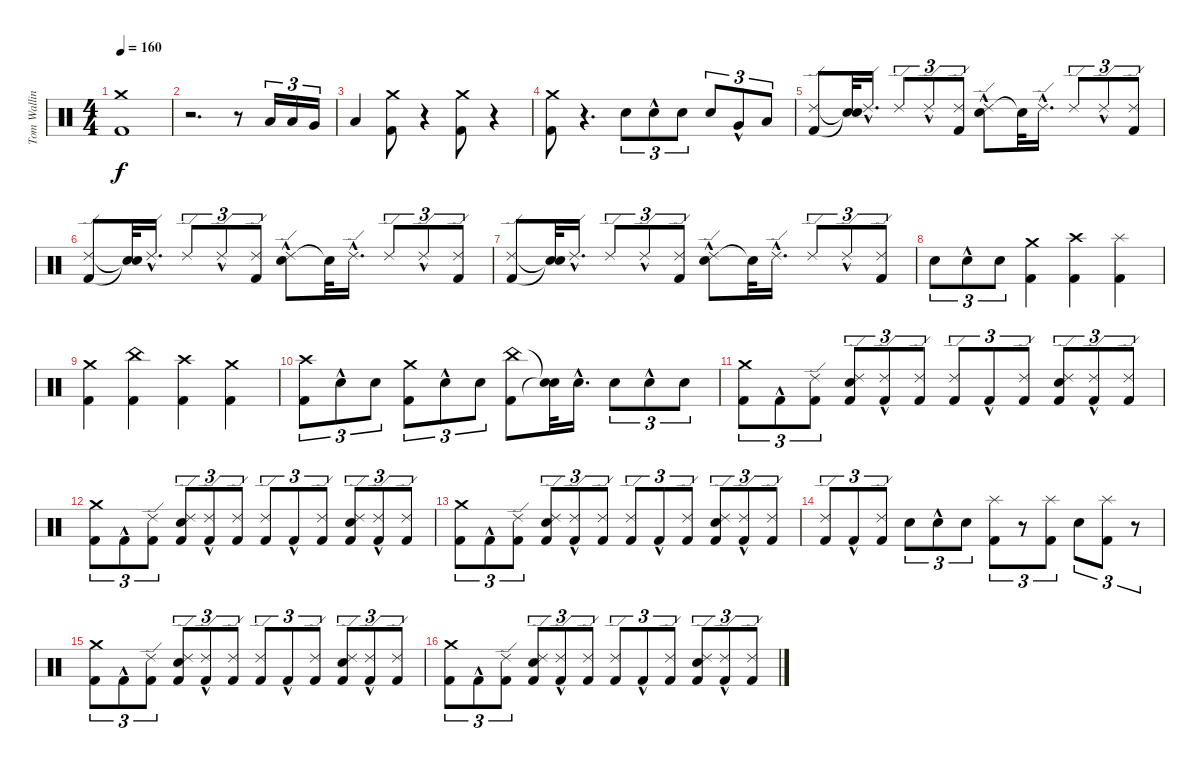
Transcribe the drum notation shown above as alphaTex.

\track ("Tom Walling (Drums)" "Tom Wallin") {instrument percussion}
\staff {score}
\articulation defaults
\ts (4 4)
\tempo 160
\clef neutral
\ks c
("Crash medium (hit)" "Kick (hit) 2").1{dy f} |
r.2{d} r.8 "Low Tom (hit)".16{tu (3 2)} "Low Tom (hit)".16{tu (3 2)} "Very Low Tom (hit)".16{tu (3 2)} |
"Low Floor Tom (hit)".4 ("Crash medium (hit)" "Kick (hit) 2").8 r.4 ("Crash medium (hit)" "Kick (hit) 2").8 r.4 |
("Crash medium (hit)" "Kick (hit) 2").8 r.4{d} "Electric Snare (hit)".8{tu (3 2)} "Electric Snare (hit)"{hac}.8{tu (3 2)} "Electric Snare (hit)".8{tu (3 2)} "Electric Snare (hit)".8{tu (3 2)} "Very Low Tom (hit)"{hac}.8{tu (3 2)} "Low Floor Tom (hit)".8{tu (3 2)} |
("Ride (edge) 2" "Kick (hit) 2").8 ("Snare (hit)"{t} "Snare (hit)"{t}).32 "Ride (edge) 2"{hac}.16{d} "Ride (edge) 2".8{tu (3 2)} "Ride (edge) 2"{hac}.8{tu (3 2)} ("Ride (edge) 2" "Kick (hit) 2").8{tu (3 2)} ("Ride (edge) 2"{hac} "Electric Snare (hit)").8 "Snare (hit)"{t}.32 "Ride (edge) 2"{hac}.16{d} "Ride (edge) 2".8{tu (3 2)} "Ride (edge) 2"{hac}.8{tu (3 2)} ("Ride (edge) 2" "Kick (hit) 2").8{tu (3 2)} |
("Ride (edge) 2" "Kick (hit) 2").8 ("Snare (hit)"{t} "Snare (hit)"{t}).32 "Ride (edge) 2"{hac}.16{d} "Ride (edge) 2".8{tu (3 2)} "Ride (edge) 2"{hac}.8{tu (3 2)} ("Ride (edge) 2" "Kick (hit) 2").8{tu (3 2)} ("Ride (edge) 2"{hac} "Electric Snare (hit)").8 "Snare (hit)"{t}.32 "Ride (edge) 2"{hac}.16{d} "Ride (edge) 2".8{tu (3 2)} "Ride (edge) 2"{hac}.8{tu (3 2)} ("Ride (edge) 2" "Kick (hit) 2").8{tu (3 2)} |
("Ride (edge) 2" "Kick (hit) 2").8 ("Snare (hit)"{t} "Snare (hit)"{t}).32 "Ride (edge) 2"{hac}.16{d} "Ride (edge) 2".8{tu (3 2)} "Ride (edge) 2"{hac}.8{tu (3 2)} ("Ride (edge) 2" "Kick (hit) 2").8{tu (3 2)} ("Ride (edge) 2"{hac} "Electric Snare (hit)").8 "Snare (hit)"{t}.32 "Ride (edge) 2"{hac}.16{d} "Ride (edge) 2".8{tu (3 2)} "Ride (edge) 2"{hac}.8{tu (3 2)} ("Ride (edge) 2" "Kick (hit) 2").8{tu (3 2)} |
"Electric Snare (hit)".8{tu (3 2)} "Electric Snare (hit)"{hac}.8{tu (3 2)} "Electric Snare (hit)".8{tu (3 2)} ("Crash medium (hit)" "Kick (hit) 2").4 ("Crash high (hit)" "Kick (hit) 2").4 ("Splash (hit)" "Kick (hit) 2").4 |
("Crash medium (hit)" "Kick (hit) 2").4 ("China (hit)" "Kick (hit) 2").4 ("Crash high (hit)" "Kick (hit) 2").4 ("Crash medium (hit)" "Kick (hit) 2").4 |
("Crash high (hit)" "Kick (hit) 2").8{tu (3 2)} "Electric Snare (hit)"{hac}.8{tu (3 2)} "Electric Snare (hit)".8{tu (3 2)} ("Crash medium (hit)" "Kick (hit) 2").8{tu (3 2)} "Electric Snare (hit)"{hac}.8{tu (3 2)} "Electric Snare (hit)".8{tu (3 2)} ("China (hit)" "Kick (hit) 2").8 ("Snare (hit)"{t} "Snare (hit)"{t}).32 "Electric Snare (hit)"{hac}.16{d} "Electric Snare (hit)".8{tu (3 2)} "Electric Snare (hit)"{hac}.8{tu (3 2)} "Electric Snare (hit)".8{tu (3 2)} |
("Crash medium (hit)" "Kick (hit) 2").8{tu (3 2) volume 16 balance 8} "Kick (hit) 2"{hac}.8{tu (3 2)} ("Ride (edge) 2" "Kick (hit) 2").8{tu (3 2)} ("Ride (edge) 2" "Electric Snare (hit)" "Kick (hit) 2").8{tu (3 2)} ("Ride (edge) 2"{hac} "Kick (hit) 2"{hac}).8{tu (3 2)} ("Ride (edge) 2" "Kick (hit) 2").8{tu (3 2)} ("Ride (edge) 2" "Kick (hit) 2").8{tu (3 2)} "Kick (hit) 2"{hac}.8{tu (3 2)} ("Ride (edge) 2" "Kick (hit) 2").8{tu (3 2)} ("Ride (edge) 2" "Electric Snare (hit)" "Kick (hit) 2").8{tu (3 2)} ("Ride (edge) 2"{hac} "Kick (hit) 2"{hac}).8{tu (3 2)} ("Ride (edge) 2" "Kick (hit) 2").8{tu (3 2)} |
("Crash medium (hit)" "Kick (hit) 2").8{tu (3 2)} "Kick (hit) 2"{hac}.8{tu (3 2)} ("Ride (edge) 2" "Kick (hit) 2").8{tu (3 2)} ("Ride (edge) 2" "Electric Snare (hit)" "Kick (hit) 2").8{tu (3 2)} ("Ride (edge) 2"{hac} "Kick (hit) 2"{hac}).8{tu (3 2)} ("Ride (edge) 2" "Kick (hit) 2").8{tu (3 2)} ("Ride (edge) 2" "Kick (hit) 2").8{tu (3 2)} "Kick (hit) 2"{hac}.8{tu (3 2)} ("Ride (edge) 2" "Kick (hit) 2").8{tu (3 2)} ("Ride (edge) 2" "Electric Snare (hit)" "Kick (hit) 2").8{tu (3 2)} ("Ride (edge) 2"{hac} "Kick (hit) 2"{hac}).8{tu (3 2)} ("Ride (edge) 2" "Kick (hit) 2").8{tu (3 2)} |
("Crash medium (hit)" "Kick (hit) 2").8{tu (3 2)} "Kick (hit) 2"{hac}.8{tu (3 2)} ("Ride (edge) 2" "Kick (hit) 2").8{tu (3 2)} ("Ride (edge) 2" "Electric Snare (hit)" "Kick (hit) 2").8{tu (3 2)} ("Ride (edge) 2"{hac} "Kick (hit) 2"{hac}).8{tu (3 2)} ("Ride (edge) 2" "Kick (hit) 2").8{tu (3 2)} ("Ride (edge) 2" "Kick (hit) 2").8{tu (3 2)} "Kick (hit) 2"{hac}.8{tu (3 2)} ("Ride (edge) 2" "Kick (hit) 2").8{tu (3 2)} ("Ride (edge) 2" "Electric Snare (hit)" "Kick (hit) 2").8{tu (3 2)} ("Ride (edge) 2"{hac} "Kick (hit) 2"{hac}).8{tu (3 2)} ("Ride (edge) 2" "Kick (hit) 2").8{tu (3 2)} |
("Ride (edge) 2" "Kick (hit) 2").8{tu (3 2)} "Kick (hit) 2"{hac}.8{tu (3 2)} ("Ride (edge) 2" "Kick (hit) 2").8{tu (3 2)} "Electric Snare (hit)".8{tu (3 2)} "Electric Snare (hit)"{hac}.8{tu (3 2)} "Electric Snare (hit)".8{tu (3 2)} ("Splash (hit)" "Kick (hit) 2").8{tu (3 2)} r.8{tu (3 2)} ("Splash (hit)" "Kick (hit) 2").8{tu (3 2)} "Electric Snare (hit)".8{tu (3 2)} ("Splash (hit)" "Kick (hit) 2").8{tu (3 2)} r.8{tu (3 2)} |
("Crash medium (hit)" "Kick (hit) 2").8{tu (3 2)} "Kick (hit) 2"{hac}.8{tu (3 2)} ("Ride (edge) 2" "Kick (hit) 2").8{tu (3 2)} ("Ride (edge) 2" "Electric Snare (hit)" "Kick (hit) 2").8{tu (3 2)} ("Ride (edge) 2"{hac} "Kick (hit) 2"{hac}).8{tu (3 2)} ("Ride (edge) 2" "Kick (hit) 2").8{tu (3 2)} ("Ride (edge) 2" "Kick (hit) 2").8{tu (3 2)} "Kick (hit) 2"{hac}.8{tu (3 2)} ("Ride (edge) 2" "Kick (hit) 2").8{tu (3 2)} ("Ride (edge) 2" "Electric Snare (hit)" "Kick (hit) 2").8{tu (3 2)} ("Ride (edge) 2"{hac} "Kick (hit) 2"{hac}).8{tu (3 2)} ("Ride (edge) 2" "Kick (hit) 2").8{tu (3 2)} |
("Crash medium (hit)" "Kick (hit) 2").8{tu (3 2)} "Kick (hit) 2"{hac}.8{tu (3 2)} ("Ride (edge) 2" "Kick (hit) 2").8{tu (3 2)} ("Ride (edge) 2" "Electric Snare (hit)" "Kick (hit) 2").8{tu (3 2)} ("Ride (edge) 2"{hac} "Kick (hit) 2"{hac}).8{tu (3 2)} ("Ride (edge) 2" "Kick (hit) 2").8{tu (3 2)} ("Ride (edge) 2" "Kick (hit) 2").8{tu (3 2)} "Kick (hit) 2"{hac}.8{tu (3 2)} ("Ride (edge) 2" "Kick (hit) 2").8{tu (3 2)} ("Ride (edge) 2" "Electric Snare (hit)" "Kick (hit) 2").8{tu (3 2)} ("Ride (edge) 2"{hac} "Kick (hit) 2"{hac}).8{tu (3 2)} ("Ride (edge) 2" "Kick (hit) 2").8{tu (3 2)}
